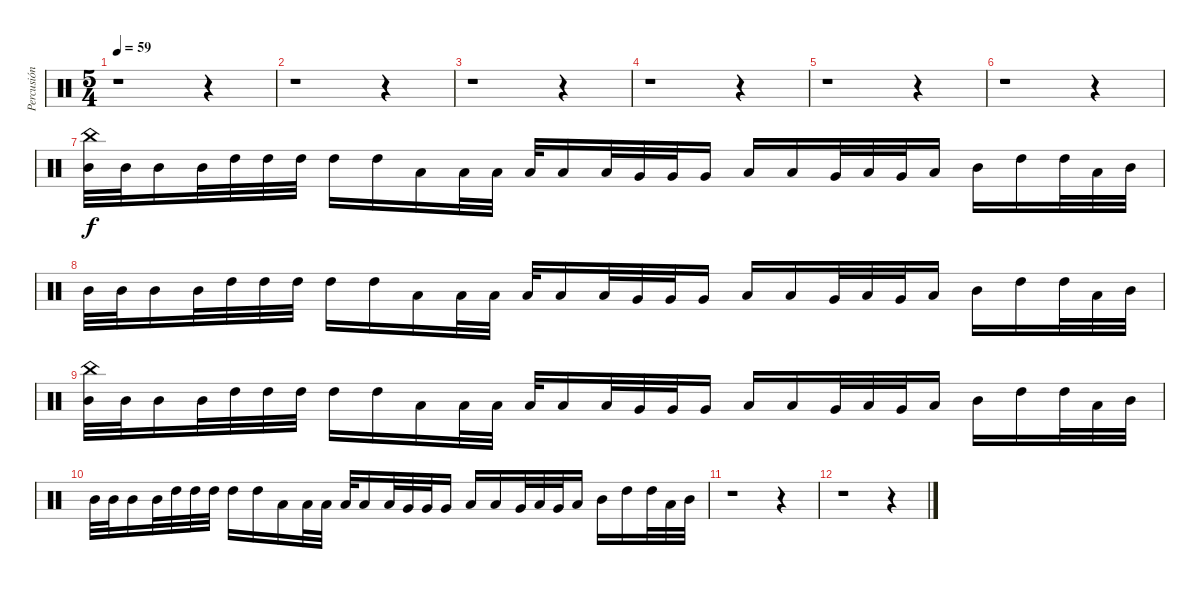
\track ("Percusión" "Percusión") {instrument percussion}
\staff {score}
\articulation defaults
\ts (5 4)
\tempo 59
\clef neutral
\ks c
r.1{dy f} r.4 |
r.1 r.4 |
r.1 r.4 |
r.1 r.4 |
r.1 r.4 |
r.1 r.4 |
("Mid Tom (hit)" "China (hit)").32 "Mid Tom (hit)".32 "Mid Tom (hit)".16 "Mid Tom (hit)".32 "High Tom (hit)".32 "High Tom (hit)".32 "High Tom (hit)".32 "High Tom (hit)".16 "High Tom (hit)".16 "Low Tom (hit)".16 "Low Tom (hit)".32 "Low Tom (hit)".32 "Low Tom (hit)".32 "Low Tom (hit)".16 "Low Tom (hit)".32 "Very Low Tom (hit)".32 "Very Low Tom (hit)".32 "Very Low Tom (hit)".16 "Low Floor Tom (hit)".16 "Low Floor Tom (hit)".16 "Very Low Tom (hit)".32 "Low Tom (hit)".32 "Very Low Tom (hit)".32 "Low Tom (hit)".16 "Mid Tom (hit)".16 "High Tom (hit)".16 "High Tom (hit)".32 "Low Tom (hit)".32 "Mid Tom (hit)".32 |
"Mid Tom (hit)".32 "Mid Tom (hit)".32 "Mid Tom (hit)".16 "Mid Tom (hit)".32 "High Tom (hit)".32 "High Tom (hit)".32 "High Tom (hit)".32 "High Tom (hit)".16 "High Tom (hit)".16 "Low Tom (hit)".16 "Low Tom (hit)".32 "Low Tom (hit)".32 "Low Tom (hit)".32 "Low Tom (hit)".16 "Low Tom (hit)".32 "Very Low Tom (hit)".32 "Very Low Tom (hit)".32 "Very Low Tom (hit)".16 "Low Floor Tom (hit)".16 "Low Floor Tom (hit)".16 "Very Low Tom (hit)".32 "Low Tom (hit)".32 "Very Low Tom (hit)".32 "Low Tom (hit)".16 "Mid Tom (hit)".16 "High Tom (hit)".16 "High Tom (hit)".32 "Low Tom (hit)".32 "Mid Tom (hit)".32 |
("Mid Tom (hit)" "China (hit)").32 "Mid Tom (hit)".32 "Mid Tom (hit)".16 "Mid Tom (hit)".32 "High Tom (hit)".32 "High Tom (hit)".32 "High Tom (hit)".32 "High Tom (hit)".16 "High Tom (hit)".16 "Low Tom (hit)".16 "Low Tom (hit)".32 "Low Tom (hit)".32 "Low Tom (hit)".32 "Low Tom (hit)".16 "Low Tom (hit)".32 "Very Low Tom (hit)".32 "Very Low Tom (hit)".32 "Very Low Tom (hit)".16 "Low Floor Tom (hit)".16 "Low Floor Tom (hit)".16 "Very Low Tom (hit)".32 "Low Tom (hit)".32 "Very Low Tom (hit)".32 "Low Tom (hit)".16 "Mid Tom (hit)".16 "High Tom (hit)".16 "High Tom (hit)".32 "Low Tom (hit)".32 "Mid Tom (hit)".32 |
"Mid Tom (hit)".32 "Mid Tom (hit)".32 "Mid Tom (hit)".16 "Mid Tom (hit)".32 "High Tom (hit)".32 "High Tom (hit)".32 "High Tom (hit)".32 "High Tom (hit)".16 "High Tom (hit)".16 "Low Tom (hit)".16 "Low Tom (hit)".32 "Low Tom (hit)".32 "Low Tom (hit)".32 "Low Tom (hit)".16 "Low Tom (hit)".32 "Very Low Tom (hit)".32 "Very Low Tom (hit)".32 "Very Low Tom (hit)".16 "Low Floor Tom (hit)".16 "Low Floor Tom (hit)".16 "Very Low Tom (hit)".32 "Low Tom (hit)".32 "Very Low Tom (hit)".32 "Low Tom (hit)".16 "Mid Tom (hit)".16 "High Tom (hit)".16 "High Tom (hit)".32 "Low Tom (hit)".32 "Mid Tom (hit)".32 |
r.1 r.4 |
r.1 r.4
